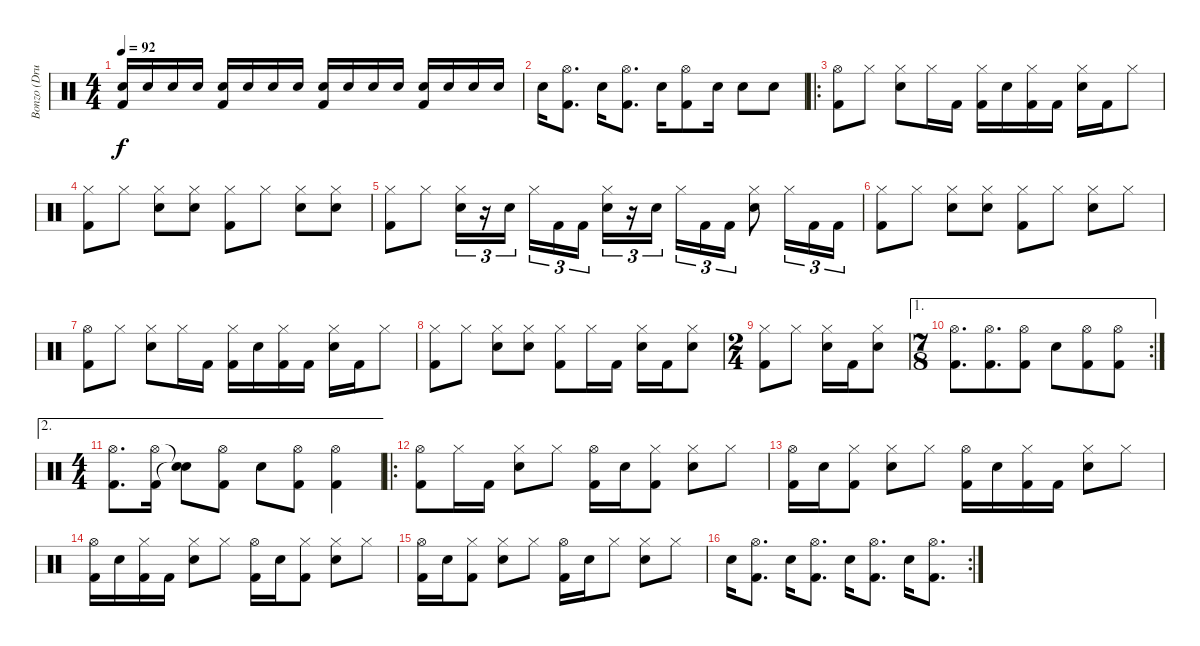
\track ("Bonzo (Drums)" "Bonzo (Dru") {instrument percussion}
\staff {score}
\articulation defaults
\ts (4 4)
\tempo 92
\clef neutral
\ks c
("Snare (hit) 2" "Kick (hit) 2").16{dy f} "Snare (hit) 2".16 "Snare (hit) 2".16 "Snare (hit) 2".16 ("Snare (hit) 2" "Kick (hit) 2").16 "Snare (hit) 2".16 "Snare (hit) 2".16 "Snare (hit) 2".16 ("Snare (hit) 2" "Kick (hit) 2").16 "Snare (hit) 2".16 "Snare (hit) 2".16 "Snare (hit) 2".16 ("Snare (hit) 2" "Kick (hit) 2").16 "Snare (hit) 2".16 "Snare (hit) 2".16 "Snare (hit) 2".16 |
"Snare (hit) 2".16 ("Hi-Hat (open)" "Kick (hit) 2").8{d} "Snare (hit) 2".16 ("Hi-Hat (open)" "Kick (hit) 2").8{d} "Snare (hit) 2".16 ("Hi-Hat (open)" "Kick (hit) 2").8 "Snare (hit) 2".16 "Snare (hit) 2".8 "Snare (hit) 2".8 |
\ro
("Hi-Hat (open)" "Kick (hit) 2").8 "Hi-Hat (closed)".8 ("Hi-Hat (closed)" "Snare (hit) 2").8 "Hi-Hat (closed)".16 "Kick (hit) 2".16 ("Hi-Hat (closed)" "Kick (hit) 2").16 "Snare (hit) 2".16 ("Hi-Hat (closed)" "Kick (hit) 2").16 "Kick (hit) 2".16 ("Hi-Hat (closed)" "Snare (hit) 2").16 "Kick (hit) 2".16 "Hi-Hat (closed)".8 |
("Hi-Hat (closed)" "Kick (hit) 2").8 "Hi-Hat (closed)".8 ("Hi-Hat (closed)" "Snare (hit) 2").8 ("Hi-Hat (closed)" "Snare (hit) 2").8 ("Hi-Hat (closed)" "Kick (hit) 2").8 "Hi-Hat (closed)".8 ("Hi-Hat (closed)" "Snare (hit) 2").8 ("Hi-Hat (closed)" "Snare (hit) 2").8 |
("Hi-Hat (closed)" "Kick (hit) 2").8 "Hi-Hat (closed)".8 ("Hi-Hat (closed)" "Snare (hit) 2").16{tu (3 2)} r.16{tu (3 2)} "Snare (hit) 2".16{tu (3 2)} "Hi-Hat (closed)".16{tu (3 2)} "Kick (hit) 2".16{tu (3 2)} "Kick (hit) 2".16{tu (3 2)} ("Hi-Hat (closed)" "Snare (hit) 2").16{tu (3 2)} r.16{tu (3 2)} "Snare (hit) 2".16{tu (3 2)} "Hi-Hat (closed)".16{tu (3 2)} "Kick (hit) 2".16{tu (3 2)} "Kick (hit) 2".16{tu (3 2)} ("Hi-Hat (closed)" "Snare (hit) 2").8 "Hi-Hat (closed)".16{tu (3 2)} "Kick (hit) 2".16{tu (3 2)} "Kick (hit) 2".16{tu (3 2)} |
("Hi-Hat (closed)" "Kick (hit) 2").8 "Hi-Hat (closed)".8 ("Hi-Hat (closed)" "Snare (hit) 2").8 ("Hi-Hat (closed)" "Snare (hit) 2").8 ("Hi-Hat (closed)" "Kick (hit) 2").8 "Hi-Hat (closed)".8 ("Hi-Hat (closed)" "Snare (hit) 2").8 "Hi-Hat (closed)".8 |
("Hi-Hat (open)" "Kick (hit) 2").8 "Hi-Hat (closed)".8 ("Hi-Hat (closed)" "Snare (hit) 2").8 "Hi-Hat (closed)".16 "Kick (hit) 2".16 ("Hi-Hat (closed)" "Kick (hit) 2").16 "Snare (hit) 2".16 ("Hi-Hat (closed)" "Kick (hit) 2").16 "Kick (hit) 2".16 ("Hi-Hat (closed)" "Snare (hit) 2").16 "Kick (hit) 2".16 "Hi-Hat (closed)".8 |
("Hi-Hat (closed)" "Kick (hit) 2").8 "Hi-Hat (closed)".8 ("Hi-Hat (closed)" "Snare (hit) 2").8 ("Hi-Hat (closed)" "Snare (hit) 2").8 ("Hi-Hat (closed)" "Kick (hit) 2").8 "Hi-Hat (closed)".16 "Kick (hit) 2".16 ("Hi-Hat (closed)" "Snare (hit) 2").16 "Kick (hit) 2".16 ("Hi-Hat (closed)" "Snare (hit) 2").8 |
\ts (2 4)
("Hi-Hat (closed)" "Kick (hit) 2").8 "Hi-Hat (closed)".8 ("Hi-Hat (closed)" "Snare (hit) 2").16 "Kick (hit) 2".16 ("Hi-Hat (closed)" "Snare (hit) 2").8 |
\ae 1
\rc 2
\ts (7 8)
("Hi-Hat (open)" "Kick (hit) 2").8{d} ("Hi-Hat (open)" "Kick (hit) 2").8{d} ("Hi-Hat (open)" "Kick (hit) 2").8 "Snare (hit) 2".8 ("Hi-Hat (open)" "Kick (hit) 2").8 ("Hi-Hat (open)" "Kick (hit) 2").8 |
\ae 2
\ts (4 4)
("Hi-Hat (open)" "Kick (hit) 2").8{d} ("Hi-Hat (open)" "Kick (hit) 2").16 ("Snare (hit)"{t} "Snare (hit)"{t}).8 ("Hi-Hat (open)" "Kick (hit) 2").8 "Snare (hit) 2".8 ("Hi-Hat (open)" "Kick (hit) 2").8 ("Hi-Hat (open)" "Kick (hit) 2").4 |
\ro
("Hi-Hat (open)" "Kick (hit) 2").8 "Hi-Hat (closed)".16 "Kick (hit) 2".16 ("Hi-Hat (closed)" "Snare (hit) 2").8 "Hi-Hat (closed)".8 ("Hi-Hat (open)" "Kick (hit) 2").16 "Snare (hit) 2".16 ("Hi-Hat (closed)" "Kick (hit) 2").8 ("Hi-Hat (closed)" "Snare (hit) 2").8 "Hi-Hat (closed)".8 |
("Hi-Hat (open)" "Kick (hit) 2").16 "Snare (hit) 2".16 ("Hi-Hat (closed)" "Kick (hit) 2").8 ("Hi-Hat (closed)" "Snare (hit) 2").8 "Hi-Hat (closed)".8 ("Hi-Hat (open)" "Kick (hit) 2").16 "Snare (hit) 2".16 ("Hi-Hat (closed)" "Kick (hit) 2").16 "Kick (hit) 2".16 ("Hi-Hat (closed)" "Snare (hit) 2").8 "Hi-Hat (closed)".8 |
("Hi-Hat (open)" "Kick (hit) 2").16 "Snare (hit) 2".16 ("Hi-Hat (closed)" "Kick (hit) 2").16 "Kick (hit) 2".16 ("Hi-Hat (closed)" "Snare (hit) 2").8 "Hi-Hat (closed)".8 ("Hi-Hat (open)" "Kick (hit) 2").16 "Snare (hit) 2".16 ("Hi-Hat (closed)" "Kick (hit) 2").8 ("Hi-Hat (closed)" "Snare (hit) 2").8 "Hi-Hat (closed)".8 |
("Hi-Hat (open)" "Kick (hit) 2").16 "Snare (hit) 2".16 ("Hi-Hat (closed)" "Kick (hit) 2").8 ("Hi-Hat (closed)" "Snare (hit) 2").8 "Hi-Hat (closed)".8 ("Hi-Hat (open)" "Kick (hit) 2").16 "Snare (hit) 2".16 "Hi-Hat (closed)".8 ("Hi-Hat (closed)" "Snare (hit) 2").8 "Hi-Hat (closed)".8 |
\rc 2 "Snare (hit) 2".16
("Hi-Hat (open)" "Kick (hit) 2").8{d} "Snare (hit) 2".16 ("Hi-Hat (open)" "Kick (hit) 2").8{d} "Snare (hit) 2".16 ("Hi-Hat (open)" "Kick (hit) 2").8{d} "Snare (hit) 2".16 ("Hi-Hat (open)" "Kick (hit) 2").8{d}
